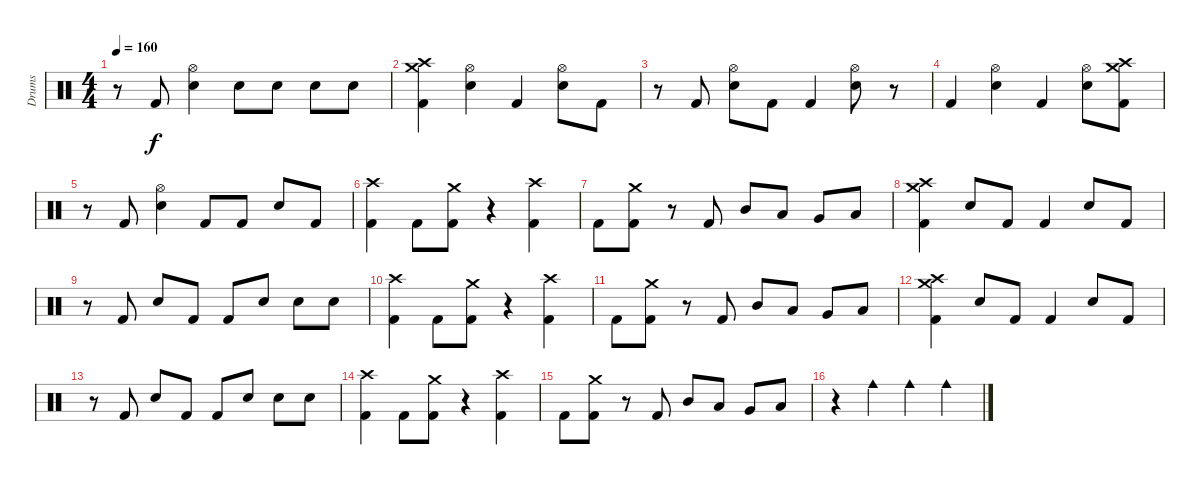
\track ("Drums" "Drums") {instrument percussion}
\staff {score}
\articulation defaults
\ts (4 4)
\tempo 160
\clef neutral
\ks c
r.8{dy f} "Kick (hit) 2".8 ("Hi-Hat (open)" "Snare (hit) 2").4 "Snare (hit) 2".8 "Snare (hit) 2".8 "Snare (hit) 2".8 "Snare (hit) 2".8 |
("Crash medium (hit)" "Crash high (hit)" "Kick (hit) 2").4 ("Hi-Hat (open)" "Snare (hit) 2").4 "Kick (hit) 2".4 ("Hi-Hat (open)" "Snare (hit) 2").8 "Kick (hit) 2".8 |
r.8 "Kick (hit) 2".8 ("Hi-Hat (open)" "Snare (hit) 2").8 "Kick (hit) 2".8 "Kick (hit) 2".4 ("Hi-Hat (open)" "Snare (hit) 2").8 r.8 |
"Kick (hit) 2".4 ("Hi-Hat (open)" "Snare (hit) 2").4 "Kick (hit) 2".4 ("Hi-Hat (open)" "Snare (hit) 2").8 ("Crash medium (hit)" "Crash high (hit)" "Kick (hit) 2").8 |
r.8 "Kick (hit) 2".8 ("Hi-Hat (open)" "Snare (hit) 2").4 "Kick (hit) 2".8 "Kick (hit) 2".8 "Snare (hit) 2".8 "Kick (hit) 2".8 |
("Crash high (hit)" "Kick (hit) 2").4 "Kick (hit) 2".8 ("Crash medium (hit)" "Kick (hit) 2").8 r.4 ("Crash high (hit)" "Kick (hit) 2").4 |
"Kick (hit) 2".8 ("Crash medium (hit)" "Kick (hit) 2").8 r.8 "Kick (hit) 2".8 "Mid Tom (hit)".8 "Low Tom (hit)".8 "Very Low Tom (hit)".8 "Low Floor Tom (hit)".8 |
("Crash medium (hit)" "Crash high (hit)" "Kick (hit) 2").4 "Snare (hit) 2".8 "Kick (hit) 2".8 "Kick (hit) 2".4 "Snare (hit) 2".8 "Kick (hit) 2".8 |
r.8 "Kick (hit) 2".8 "Snare (hit) 2".8 "Kick (hit) 2".8 "Kick (hit) 2".8 "Snare (hit) 2".8 "Snare (hit) 2".8 "Snare (hit) 2".8 |
("Crash high (hit)" "Kick (hit) 2").4 "Kick (hit) 2".8 ("Crash medium (hit)" "Kick (hit) 2").8 r.4 ("Crash high (hit)" "Kick (hit) 2").4 |
"Kick (hit) 2".8 ("Crash medium (hit)" "Kick (hit) 2").8 r.8 "Kick (hit) 2".8 "Mid Tom (hit)".8 "Low Tom (hit)".8 "Very Low Tom (hit)".8 "Low Floor Tom (hit)".8 |
("Crash medium (hit)" "Crash high (hit)" "Kick (hit) 2").4 "Snare (hit) 2".8 "Kick (hit) 2".8 "Kick (hit) 2".4 "Snare (hit) 2".8 "Kick (hit) 2".8 |
r.8 "Kick (hit) 2".8 "Snare (hit) 2".8 "Kick (hit) 2".8 "Kick (hit) 2".8 "Snare (hit) 2".8 "Snare (hit) 2".8 "Snare (hit) 2".8 |
("Crash high (hit)" "Kick (hit) 2").4 "Kick (hit) 2".8 ("Crash medium (hit)" "Kick (hit) 2").8 r.4 ("Crash high (hit)" "Kick (hit) 2").4 |
"Kick (hit) 2".8 ("Crash medium (hit)" "Kick (hit) 2").8 r.8 "Kick (hit) 2".8 "Mid Tom (hit)".8 "Low Tom (hit)".8 "Very Low Tom (hit)".8 "Low Floor Tom (hit)".8 |
r.4 "Cowbell medium (hit)".4 "Cowbell medium (hit)".4 "Cowbell medium (hit)".4
